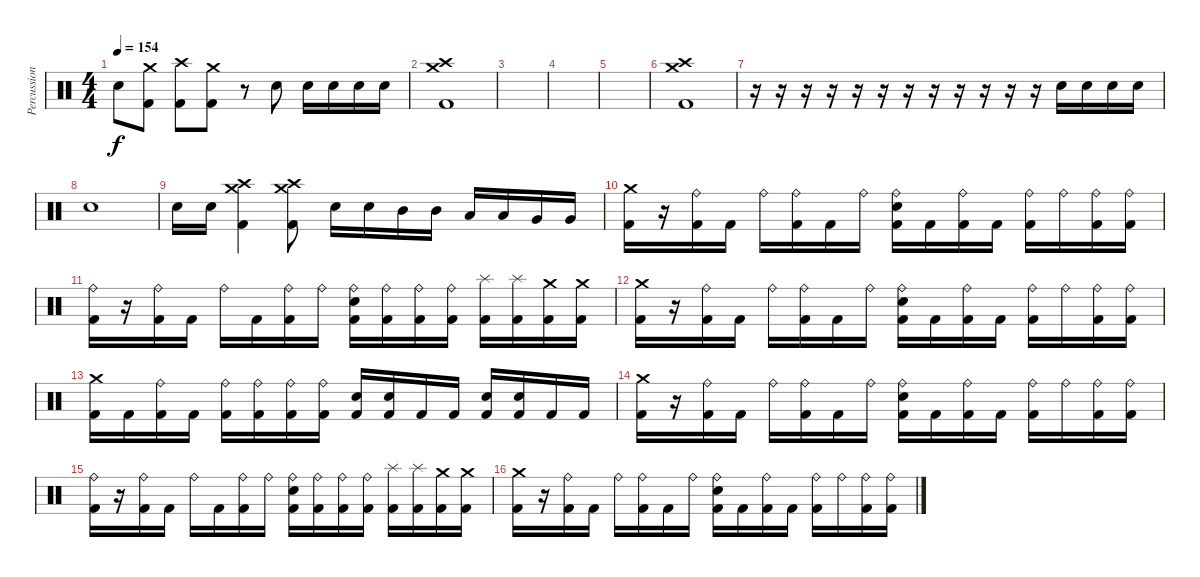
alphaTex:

\track ("Percussion" "Percussion") {instrument percussion bank 128}
\staff {score}
\articulation defaults
\ts (4 4)
\tempo 154
\clef neutral
\ks c "Snare (hit) 2".8{dy f}
("Crash medium (hit)" "Kick (hit) 2").8 ("Crash high (hit)" "Kick (hit) 2").8 ("Crash medium (hit)" "Kick (hit) 2").8 r.8 "Snare (hit) 2".8 "Snare (hit) 2".16 "Snare (hit) 2".16 "Snare (hit) 2".16 "Snare (hit) 2".16 |
("Crash high (hit)" "Crash medium (hit)" "Kick (hit) 2").1 |
|
|
|
("Crash high (hit)" "Crash medium (hit)" "Kick (hit) 2").1 |
r.16 r.16 r.16 r.16 r.16 r.16 r.16 r.16 r.16 r.16 r.16 r.16 "Snare (hit) 2".16 "Snare (hit) 2".16 "Snare (hit) 2".16 "Snare (hit) 2".16 |
"Snare (hit) 2".1 |
"Snare (hit) 2".16 "Snare (hit) 2".16 ("Crash high (hit)" "Crash medium (hit)" "Kick (hit) 2").4 ("Crash high (hit)" "Crash medium (hit)" "Kick (hit) 2").8 "Snare (hit) 2".16 "Snare (hit) 2".16 "Mid Tom (hit)".16 "Mid Tom (hit)".16 "Low Tom (hit)".16 "Low Tom (hit)".16 "Very Low Tom (hit)".16 "Very Low Tom (hit)".16 |
("Crash medium (hit)" "Kick (hit) 2").16 r.16 ("Ride (bell)" "Kick (hit) 2").16 "Kick (hit) 2".16 "Ride (bell)".16 ("Ride (bell)" "Kick (hit) 2").16 "Kick (hit) 2".16 "Ride (bell)".16 ("Ride (bell)" "Snare (hit) 2" "Kick (hit) 2").16 "Kick (hit) 2".16 ("Ride (bell)" "Kick (hit) 2").16 "Kick (hit) 2".16 ("Ride (bell)" "Kick (hit) 2").16 "Ride (bell)".16 ("Ride (bell)" "Kick (hit) 2").16 ("Ride (bell)" "Kick (hit) 2").16 |
("Ride (bell)" "Kick (hit) 2").16 r.16 ("Ride (bell)" "Kick (hit) 2").16 "Kick (hit) 2".16 "Ride (bell)".16 "Kick (hit) 2".16 ("Ride (bell)" "Kick (hit) 2").16 "Ride (bell)".16 ("Ride (bell)" "Snare (hit) 2" "Kick (hit) 2").16 ("Ride (bell)" "Kick (hit) 2").16 ("Ride (bell)" "Kick (hit) 2").16 ("Ride (bell)" "Kick (hit) 2").16 ("Splash (hit)" "Kick (hit) 2").16 ("Splash (hit)" "Kick (hit) 2").16 ("Crash medium (hit)" "Kick (hit) 2").16 ("Crash medium (hit)" "Kick (hit) 2").16 |
("Crash medium (hit)" "Kick (hit) 2").16 r.16 ("Ride (bell)" "Kick (hit) 2").16 "Kick (hit) 2".16 "Ride (bell)".16 ("Ride (bell)" "Kick (hit) 2").16 "Kick (hit) 2".16 "Ride (bell)".16 ("Ride (bell)" "Snare (hit) 2" "Kick (hit) 2").16 "Kick (hit) 2".16 ("Ride (bell)" "Kick (hit) 2").16 "Kick (hit) 2".16 ("Ride (bell)" "Kick (hit) 2").16 "Ride (bell)".16 ("Ride (bell)" "Kick (hit) 2").16 ("Ride (bell)" "Kick (hit) 2").16 |
("Crash medium (hit)" "Kick (hit) 2").16 "Kick (hit) 2".16 ("Ride (bell)" "Kick (hit) 2").16 "Kick (hit) 2".16 ("Ride (bell)" "Kick (hit) 2").16 ("Ride (bell)" "Kick (hit) 2").16 ("Ride (bell)" "Kick (hit) 2").16 ("Ride (bell)" "Kick (hit) 2").16 ("Snare (hit) 2" "Kick (hit) 2").16 ("Snare (hit) 2" "Kick (hit) 2").16 "Kick (hit) 2".16 "Kick (hit) 2".16 ("Snare (hit) 2" "Kick (hit) 2").16 ("Snare (hit) 2" "Kick (hit) 2").16 "Kick (hit) 2".16 "Kick (hit) 2".16 |
("Crash medium (hit)" "Kick (hit) 2").16 r.16 ("Ride (bell)" "Kick (hit) 2").16 "Kick (hit) 2".16 "Ride (bell)".16 ("Ride (bell)" "Kick (hit) 2").16 "Kick (hit) 2".16 "Ride (bell)".16 ("Ride (bell)" "Snare (hit) 2" "Kick (hit) 2").16 "Kick (hit) 2".16 ("Ride (bell)" "Kick (hit) 2").16 "Kick (hit) 2".16 ("Ride (bell)" "Kick (hit) 2").16 "Ride (bell)".16 ("Ride (bell)" "Kick (hit) 2").16 ("Ride (bell)" "Kick (hit) 2").16 |
("Ride (bell)" "Kick (hit) 2").16 r.16 ("Ride (bell)" "Kick (hit) 2").16 "Kick (hit) 2".16 "Ride (bell)".16 "Kick (hit) 2".16 ("Ride (bell)" "Kick (hit) 2").16 "Ride (bell)".16 ("Ride (bell)" "Snare (hit) 2" "Kick (hit) 2").16 ("Ride (bell)" "Kick (hit) 2").16 ("Ride (bell)" "Kick (hit) 2").16 ("Ride (bell)" "Kick (hit) 2").16 ("Splash (hit)" "Kick (hit) 2").16 ("Splash (hit)" "Kick (hit) 2").16 ("Crash medium (hit)" "Kick (hit) 2").16 ("Crash medium (hit)" "Kick (hit) 2").16 |
("Crash medium (hit)" "Kick (hit) 2").16 r.16 ("Ride (bell)" "Kick (hit) 2").16 "Kick (hit) 2".16 "Ride (bell)".16 ("Ride (bell)" "Kick (hit) 2").16 "Kick (hit) 2".16 "Ride (bell)".16 ("Ride (bell)" "Snare (hit) 2" "Kick (hit) 2").16 "Kick (hit) 2".16 ("Ride (bell)" "Kick (hit) 2").16 "Kick (hit) 2".16 ("Ride (bell)" "Kick (hit) 2").16 "Ride (bell)".16 ("Ride (bell)" "Kick (hit) 2").16 ("Ride (bell)" "Kick (hit) 2").16
